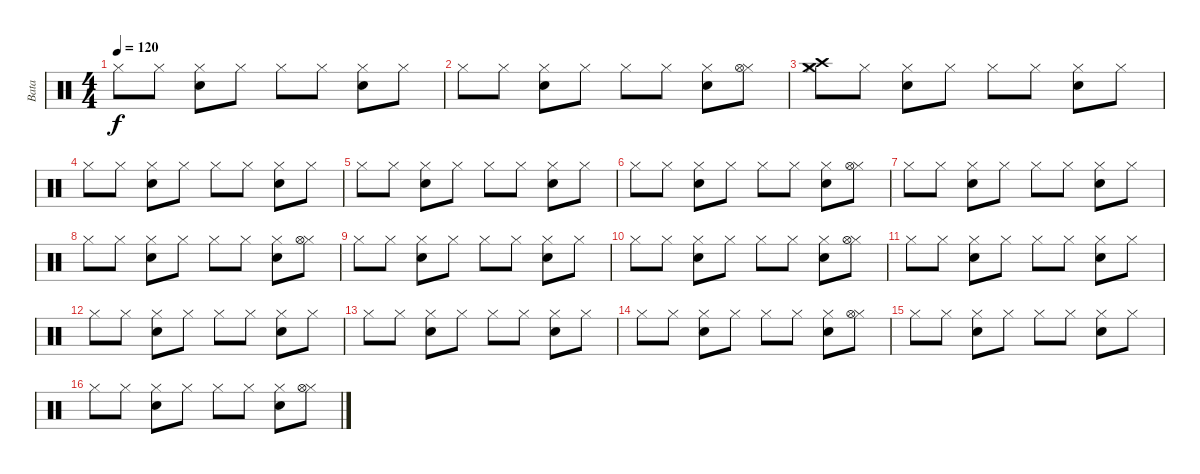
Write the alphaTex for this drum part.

\track ("Bata" "Bata") {instrument percussion}
\staff {score}
\articulation defaults
\ts (4 4)
\tempo 120
\clef neutral
\ks c "Hi-Hat (closed)".8{dy f} "Hi-Hat (closed)".8
("Hi-Hat (closed)" "Electric Snare (hit)").8 "Hi-Hat (closed)".8 "Hi-Hat (closed)".8 "Hi-Hat (closed)".8 ("Hi-Hat (closed)" "Electric Snare (hit)").8 "Hi-Hat (closed)".8 |
"Hi-Hat (closed)".8 "Hi-Hat (closed)".8 ("Hi-Hat (closed)" "Electric Snare (hit)").8 "Hi-Hat (closed)".8 "Hi-Hat (closed)".8 "Hi-Hat (closed)".8 ("Hi-Hat (closed)" "Electric Snare (hit)").8 ("Hi-Hat (closed)" "Hi-Hat (open)").8 |
("Hi-Hat (closed)" "Crash medium (hit)" "Crash high (hit)").8 "Hi-Hat (closed)".8 ("Hi-Hat (closed)" "Electric Snare (hit)").8 "Hi-Hat (closed)".8 "Hi-Hat (closed)".8 "Hi-Hat (closed)".8 ("Hi-Hat (closed)" "Electric Snare (hit)").8 "Hi-Hat (closed)".8 |
"Hi-Hat (closed)".8 "Hi-Hat (closed)".8 ("Hi-Hat (closed)" "Electric Snare (hit)").8 "Hi-Hat (closed)".8 "Hi-Hat (closed)".8 "Hi-Hat (closed)".8 ("Hi-Hat (closed)" "Electric Snare (hit)").8 "Hi-Hat (closed)".8 |
"Hi-Hat (closed)".8 "Hi-Hat (closed)".8 ("Hi-Hat (closed)" "Electric Snare (hit)").8 "Hi-Hat (closed)".8 "Hi-Hat (closed)".8 "Hi-Hat (closed)".8 ("Hi-Hat (closed)" "Electric Snare (hit)").8 "Hi-Hat (closed)".8 |
"Hi-Hat (closed)".8 "Hi-Hat (closed)".8 ("Hi-Hat (closed)" "Electric Snare (hit)").8 "Hi-Hat (closed)".8 "Hi-Hat (closed)".8 "Hi-Hat (closed)".8 ("Hi-Hat (closed)" "Electric Snare (hit)").8 ("Hi-Hat (closed)" "Hi-Hat (open)").8 |
"Hi-Hat (closed)".8 "Hi-Hat (closed)".8 ("Hi-Hat (closed)" "Electric Snare (hit)").8 "Hi-Hat (closed)".8 "Hi-Hat (closed)".8 "Hi-Hat (closed)".8 ("Hi-Hat (closed)" "Electric Snare (hit)").8 "Hi-Hat (closed)".8 |
"Hi-Hat (closed)".8 "Hi-Hat (closed)".8 ("Hi-Hat (closed)" "Electric Snare (hit)").8 "Hi-Hat (closed)".8 "Hi-Hat (closed)".8 "Hi-Hat (closed)".8 ("Hi-Hat (closed)" "Electric Snare (hit)").8 ("Hi-Hat (closed)" "Hi-Hat (open)").8 |
"Hi-Hat (closed)".8 "Hi-Hat (closed)".8 ("Hi-Hat (closed)" "Electric Snare (hit)").8 "Hi-Hat (closed)".8 "Hi-Hat (closed)".8 "Hi-Hat (closed)".8 ("Hi-Hat (closed)" "Electric Snare (hit)").8 "Hi-Hat (closed)".8 |
"Hi-Hat (closed)".8 "Hi-Hat (closed)".8 ("Hi-Hat (closed)" "Electric Snare (hit)").8 "Hi-Hat (closed)".8 "Hi-Hat (closed)".8 "Hi-Hat (closed)".8 ("Hi-Hat (closed)" "Electric Snare (hit)").8 ("Hi-Hat (closed)" "Hi-Hat (open)").8 |
"Hi-Hat (closed)".8 "Hi-Hat (closed)".8 ("Hi-Hat (closed)" "Electric Snare (hit)").8 "Hi-Hat (closed)".8 "Hi-Hat (closed)".8 "Hi-Hat (closed)".8 ("Hi-Hat (closed)" "Electric Snare (hit)").8 "Hi-Hat (closed)".8 |
"Hi-Hat (closed)".8 "Hi-Hat (closed)".8 ("Hi-Hat (closed)" "Electric Snare (hit)").8 "Hi-Hat (closed)".8 "Hi-Hat (closed)".8 "Hi-Hat (closed)".8 ("Hi-Hat (closed)" "Electric Snare (hit)").8 "Hi-Hat (closed)".8 |
"Hi-Hat (closed)".8 "Hi-Hat (closed)".8 ("Hi-Hat (closed)" "Electric Snare (hit)").8 "Hi-Hat (closed)".8 "Hi-Hat (closed)".8 "Hi-Hat (closed)".8 ("Hi-Hat (closed)" "Electric Snare (hit)").8 "Hi-Hat (closed)".8 |
"Hi-Hat (closed)".8 "Hi-Hat (closed)".8 ("Hi-Hat (closed)" "Electric Snare (hit)").8 "Hi-Hat (closed)".8 "Hi-Hat (closed)".8 "Hi-Hat (closed)".8 ("Hi-Hat (closed)" "Electric Snare (hit)").8 ("Hi-Hat (closed)" "Hi-Hat (open)").8 |
"Hi-Hat (closed)".8 "Hi-Hat (closed)".8 ("Hi-Hat (closed)" "Electric Snare (hit)").8 "Hi-Hat (closed)".8 "Hi-Hat (closed)".8 "Hi-Hat (closed)".8 ("Hi-Hat (closed)" "Electric Snare (hit)").8 "Hi-Hat (closed)".8 |
"Hi-Hat (closed)".8 "Hi-Hat (closed)".8 ("Hi-Hat (closed)" "Electric Snare (hit)").8 "Hi-Hat (closed)".8 "Hi-Hat (closed)".8 "Hi-Hat (closed)".8 ("Hi-Hat (closed)" "Electric Snare (hit)").8 ("Hi-Hat (closed)" "Hi-Hat (open)").8
